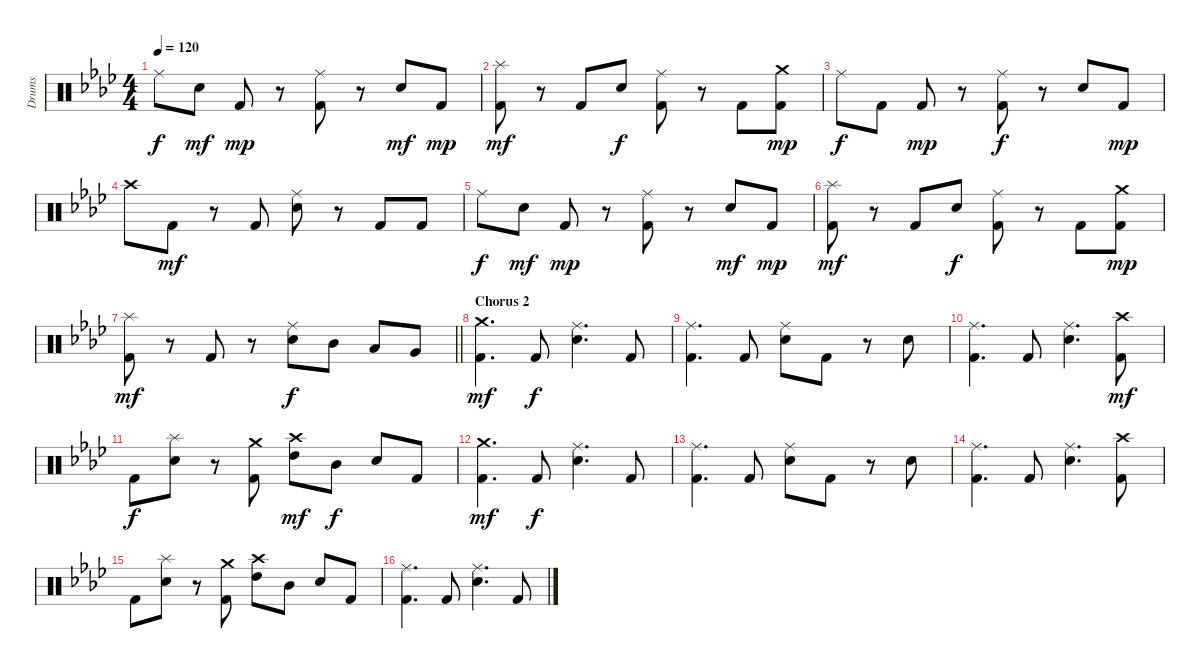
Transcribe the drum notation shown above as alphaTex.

\track ("Drums" "Drums") {instrument percussion}
\staff {score}
\articulation defaults
\ts (4 4)
\tempo 120
\clef neutral
\ks ab "Ride (middle)".8{dy f} "Snare (hit) 2".8{dy mf} "Kick (hit) 2".8{dy mp}
r.8 ("Ride (middle)" "Kick (hit) 2").8 r.8 "Snare (hit) 2".8{dy mf} "Kick (hit) 2".8{dy mp} |
("Splash (hit)" "Kick (hit) 2").8{dy mf} r.8 "Kick (hit) 2".8 "Snare (hit) 2".8{dy f} ("Ride (middle)" "Kick (hit) 2").8 r.8 "Kick (hit) 2".8 ("Crash medium (hit)" "Kick (hit) 2").8{dy mp} |
"Ride (middle)".8{dy f} "Kick (hit) 2".8 "Kick (hit) 2".8{dy mp} r.8 ("Ride (middle)" "Kick (hit) 2").8{dy f} r.8 "Snare (hit) 2".8 "Kick (hit) 2".8{dy mp} |
"Crash high (hit)".8 "Kick (hit) 2".8{dy mf} r.8 "Kick (hit) 2".8 ("Ride (middle)" "Snare (hit) 2").8 r.8 "Kick (hit) 2".8 "Kick (hit) 2".8 |
"Ride (middle)".8{dy f} "Snare (hit) 2".8{dy mf} "Kick (hit) 2".8{dy mp} r.8 ("Ride (middle)" "Kick (hit) 2").8 r.8 "Snare (hit) 2".8{dy mf} "Kick (hit) 2".8{dy mp} |
("Splash (hit)" "Kick (hit) 2").8{dy mf} r.8 "Kick (hit) 2".8 "Snare (hit) 2".8{dy f} ("Ride (middle)" "Kick (hit) 2").8 r.8 "Kick (hit) 2".8 ("Crash medium (hit)" "Kick (hit) 2").8{dy mp} |
\barLineRight lightlight
("Splash (hit)" "Kick (hit) 2").8{dy mf} r.8 "Kick (hit) 2".8 r.8 ("Ride (middle)" "Snare (hit) 2").8{dy f} "Mid Tom (hit)".8 "Low Tom (hit)".8 "Very Low Tom (hit)".8 |
\section ("" "Chorus 2")
("Crash medium (hit)" "Kick (hit) 2").4{d dy mf} "Kick (hit) 2".8{dy f} ("Ride (middle)" "Snare (hit) 2").4{d} "Kick (hit) 2".8 |
("Ride (middle)" "Kick (hit) 2").4{d} "Kick (hit) 2".8 ("Ride (middle)" "Snare (hit) 2").8 "Kick (hit) 2".8 r.8 "Snare (hit) 2".8 |
("Ride (middle)" "Kick (hit) 2").4{d} "Kick (hit) 2".8 ("Ride (middle)" "Snare (hit) 2").4{d} ("Crash high (hit)" "Kick (hit) 2").8{dy mf} |
"Kick (hit) 2".8{dy f} ("Splash (hit)" "Snare (hit) 2").8 r.8 ("Crash medium (hit)" "Kick (hit) 2").8 ("Crash high (hit)" "High Tom (hit)").8{dy mf} "Mid Tom (hit)".8{dy f} "Snare (hit) 2".8 "Kick (hit) 2".8 |
("Crash medium (hit)" "Kick (hit) 2").4{d dy mf} "Kick (hit) 2".8{dy f} ("Ride (middle)" "Snare (hit) 2").4{d} "Kick (hit) 2".8 |
("Ride (middle)" "Kick (hit) 2").4{d} "Kick (hit) 2".8 ("Ride (middle)" "Snare (hit) 2").8 "Kick (hit) 2".8 r.8 "Snare (hit) 2".8 |
("Ride (middle)" "Kick (hit) 2").4{d} "Kick (hit) 2".8 ("Ride (middle)" "Snare (hit) 2").4{d} ("Crash high (hit)" "Kick (hit) 2").8 |
"Kick (hit) 2".8 ("Splash (hit)" "Snare (hit) 2").8 r.8 ("Crash medium (hit)" "Kick (hit) 2").8 ("Crash high (hit)" "High Tom (hit)").8 "Mid Tom (hit)".8 "Snare (hit) 2".8 "Kick (hit) 2".8 |
("Ride (middle)" "Kick (hit) 2").4{d} "Kick (hit) 2".8 ("Ride (middle)" "Snare (hit) 2").4{d} "Kick (hit) 2".8
